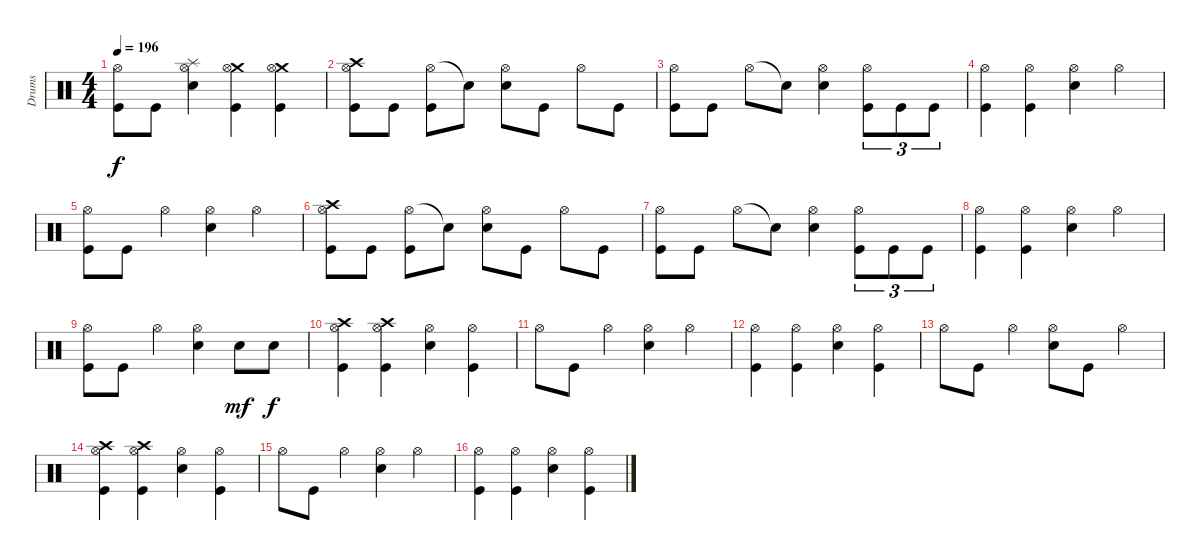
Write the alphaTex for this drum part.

\track ("Drums" "Drums") {instrument percussion}
\staff {score}
\articulation defaults
\ts (4 4)
\tempo 196
\clef neutral
\ks c
("Hi-Hat (open)" "Kick (hit)").8{dy f} "Kick (hit)".8 ("Splash (hit)" "Hi-Hat (open)" "Electric Snare (hit)").4 ("Crash medium (hit)" "Hi-Hat (open)" "Kick (hit)").4 ("Crash medium (hit)" "Hi-Hat (open)" "Kick (hit)").4 |
("Crash high (hit)" "Hi-Hat (open)" "Kick (hit)").8 "Kick (hit)".8 ("Hi-Hat (open)" "Kick (hit)").8 "Snare (hit)"{t}.8 ("Hi-Hat (open)" "Electric Snare (hit)").8 "Kick (hit)".8 "Hi-Hat (open)".8 "Kick (hit)".8 |
("Hi-Hat (open)" "Kick (hit)").8 "Kick (hit)".8 "Hi-Hat (open)".8 "Snare (hit)"{t}.8 ("Hi-Hat (open)" "Electric Snare (hit)").4 ("Hi-Hat (open)" "Kick (hit)").8{tu (3 2)} "Kick (hit)".8{tu (3 2)} "Kick (hit)".8{tu (3 2)} |
("Hi-Hat (open)" "Kick (hit)").4 ("Hi-Hat (open)" "Kick (hit)").4 ("Hi-Hat (open)" "Electric Snare (hit)").4 "Hi-Hat (open)".4 |
("Hi-Hat (open)" "Kick (hit)").8 "Kick (hit)".8 "Hi-Hat (open)".4 ("Hi-Hat (open)" "Electric Snare (hit)").4 "Hi-Hat (open)".4 |
("Crash high (hit)" "Hi-Hat (open)" "Kick (hit)").8 "Kick (hit)".8 ("Hi-Hat (open)" "Kick (hit)").8 "Snare (hit)"{t}.8 ("Hi-Hat (open)" "Electric Snare (hit)").8 "Kick (hit)".8 "Hi-Hat (open)".8 "Kick (hit)".8 |
("Hi-Hat (open)" "Kick (hit)").8 "Kick (hit)".8 "Hi-Hat (open)".8 "Snare (hit)"{t}.8 ("Hi-Hat (open)" "Electric Snare (hit)").4 ("Hi-Hat (open)" "Kick (hit)").8{tu (3 2)} "Kick (hit)".8{tu (3 2)} "Kick (hit)".8{tu (3 2)} |
("Hi-Hat (open)" "Kick (hit)").4 ("Hi-Hat (open)" "Kick (hit)").4 ("Hi-Hat (open)" "Electric Snare (hit)").4 "Hi-Hat (open)".4 |
("Hi-Hat (open)" "Kick (hit)").8 "Kick (hit)".8 "Hi-Hat (open)".4 ("Hi-Hat (open)" "Electric Snare (hit)").4 "Electric Snare (hit)".8{dy mf} "Electric Snare (hit)".8{dy f} |
("Crash high (hit)" "Hi-Hat (open)" "Kick (hit)").4 ("Crash high (hit)" "Hi-Hat (open)" "Kick (hit)").4 ("Hi-Hat (open)" "Electric Snare (hit)").4 ("Hi-Hat (open)" "Kick (hit)").4 |
"Hi-Hat (open)".8 "Kick (hit)".8 "Hi-Hat (open)".4 ("Hi-Hat (open)" "Electric Snare (hit)").4 "Hi-Hat (open)".4 |
("Hi-Hat (open)" "Kick (hit)").4 ("Hi-Hat (open)" "Kick (hit)").4 ("Hi-Hat (open)" "Electric Snare (hit)").4 ("Hi-Hat (open)" "Kick (hit)").4 |
"Hi-Hat (open)".8 "Kick (hit)".8 "Hi-Hat (open)".4 ("Hi-Hat (open)" "Electric Snare (hit)").8 "Kick (hit)".8 "Hi-Hat (open)".4 |
("Crash high (hit)" "Hi-Hat (open)" "Kick (hit)").4 ("Crash high (hit)" "Hi-Hat (open)" "Kick (hit)").4 ("Hi-Hat (open)" "Electric Snare (hit)").4 ("Hi-Hat (open)" "Kick (hit)").4 |
"Hi-Hat (open)".8 "Kick (hit)".8 "Hi-Hat (open)".4 ("Hi-Hat (open)" "Electric Snare (hit)").4 "Hi-Hat (open)".4 |
("Hi-Hat (open)" "Kick (hit)").4 ("Hi-Hat (open)" "Kick (hit)").4 ("Hi-Hat (open)" "Electric Snare (hit)").4 ("Hi-Hat (open)" "Kick (hit)").4
